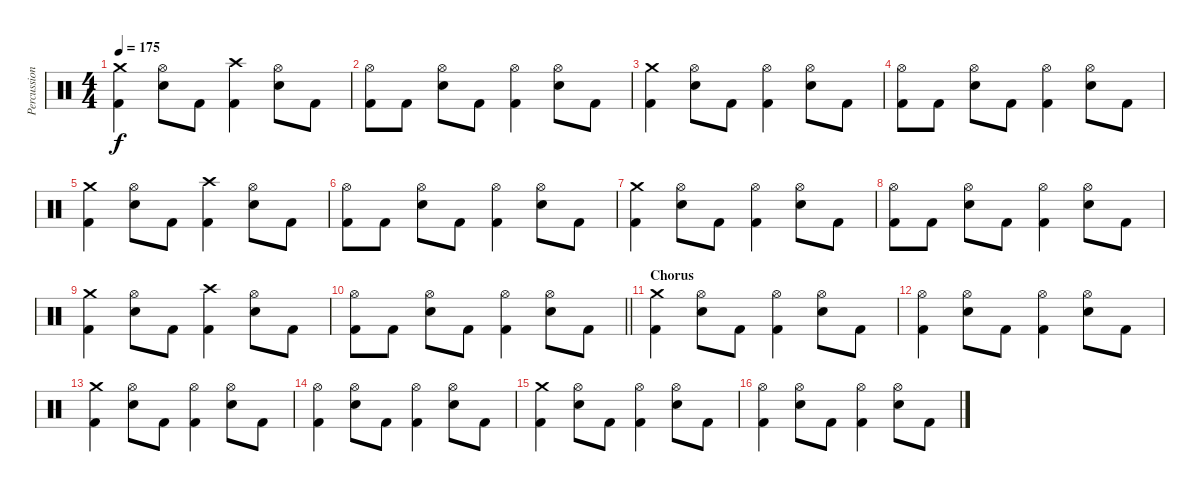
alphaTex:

\track ("Percussion" "Percussion") {instrument percussion}
\staff {score}
\articulation defaults
\ts (4 4)
\tempo 175
\clef neutral
\ks c
("Crash medium (hit)" "Kick (hit) 2").4{dy f} ("Hi-Hat (open)" "Electric Snare (hit)").8 "Kick (hit) 2".8 ("Crash high (hit)" "Kick (hit) 2").4 ("Hi-Hat (open)" "Electric Snare (hit)").8 "Kick (hit) 2".8 |
("Hi-Hat (open)" "Kick (hit) 2").8 "Kick (hit) 2".8 ("Hi-Hat (open)" "Electric Snare (hit)").8 "Kick (hit) 2".8 ("Hi-Hat (open)" "Kick (hit) 2").4 ("Hi-Hat (open)" "Electric Snare (hit)").8 "Kick (hit) 2".8 |
("Crash medium (hit)" "Kick (hit) 2").4 ("Hi-Hat (open)" "Electric Snare (hit)").8 "Kick (hit) 2".8 ("Hi-Hat (open)" "Kick (hit) 2").4 ("Hi-Hat (open)" "Electric Snare (hit)").8 "Kick (hit) 2".8 |
("Hi-Hat (open)" "Kick (hit) 2").8 "Kick (hit) 2".8 ("Hi-Hat (open)" "Electric Snare (hit)").8 "Kick (hit) 2".8 ("Hi-Hat (open)" "Kick (hit) 2").4 ("Hi-Hat (open)" "Electric Snare (hit)").8 "Kick (hit) 2".8 |
("Crash medium (hit)" "Kick (hit) 2").4 ("Hi-Hat (open)" "Electric Snare (hit)").8 "Kick (hit) 2".8 ("Crash high (hit)" "Kick (hit) 2").4 ("Hi-Hat (open)" "Electric Snare (hit)").8 "Kick (hit) 2".8 |
("Hi-Hat (open)" "Kick (hit) 2").8 "Kick (hit) 2".8 ("Hi-Hat (open)" "Electric Snare (hit)").8 "Kick (hit) 2".8 ("Hi-Hat (open)" "Kick (hit) 2").4 ("Hi-Hat (open)" "Electric Snare (hit)").8 "Kick (hit) 2".8 |
("Crash medium (hit)" "Kick (hit) 2").4 ("Hi-Hat (open)" "Electric Snare (hit)").8 "Kick (hit) 2".8 ("Hi-Hat (open)" "Kick (hit) 2").4 ("Hi-Hat (open)" "Electric Snare (hit)").8 "Kick (hit) 2".8 |
("Hi-Hat (open)" "Kick (hit) 2").8 "Kick (hit) 2".8 ("Hi-Hat (open)" "Electric Snare (hit)").8 "Kick (hit) 2".8 ("Hi-Hat (open)" "Kick (hit) 2").4 ("Hi-Hat (open)" "Electric Snare (hit)").8 "Kick (hit) 2".8 |
("Crash medium (hit)" "Kick (hit) 2").4 ("Hi-Hat (open)" "Electric Snare (hit)").8 "Kick (hit) 2".8 ("Crash high (hit)" "Kick (hit) 2").4 ("Hi-Hat (open)" "Electric Snare (hit)").8 "Kick (hit) 2".8 |
\barLineRight lightlight
("Hi-Hat (open)" "Kick (hit) 2").8 "Kick (hit) 2".8 ("Hi-Hat (open)" "Electric Snare (hit)").8 "Kick (hit) 2".8 ("Hi-Hat (open)" "Kick (hit) 2").4 ("Hi-Hat (open)" "Electric Snare (hit)").8 "Kick (hit) 2".8 |
\section ("" "Chorus")
("Crash medium (hit)" "Kick (hit) 2").4 ("Hi-Hat (open)" "Electric Snare (hit)").8 "Kick (hit) 2".8 ("Hi-Hat (open)" "Kick (hit) 2").4 ("Hi-Hat (open)" "Electric Snare (hit)").8 "Kick (hit) 2".8 |
("Hi-Hat (open)" "Kick (hit) 2").4 ("Hi-Hat (open)" "Electric Snare (hit)").8 "Kick (hit) 2".8 ("Hi-Hat (open)" "Kick (hit) 2").4 ("Hi-Hat (open)" "Electric Snare (hit)").8 "Kick (hit) 2".8 |
("Crash medium (hit)" "Kick (hit) 2").4 ("Hi-Hat (open)" "Electric Snare (hit)").8 "Kick (hit) 2".8 ("Hi-Hat (open)" "Kick (hit) 2").4 ("Hi-Hat (open)" "Electric Snare (hit)").8 "Kick (hit) 2".8 |
("Hi-Hat (open)" "Kick (hit) 2").4 ("Hi-Hat (open)" "Electric Snare (hit)").8 "Kick (hit) 2".8 ("Hi-Hat (open)" "Kick (hit) 2").4 ("Hi-Hat (open)" "Electric Snare (hit)").8 "Kick (hit) 2".8 |
("Crash medium (hit)" "Kick (hit) 2").4 ("Hi-Hat (open)" "Electric Snare (hit)").8 "Kick (hit) 2".8 ("Hi-Hat (open)" "Kick (hit) 2").4 ("Hi-Hat (open)" "Electric Snare (hit)").8 "Kick (hit) 2".8 |
("Hi-Hat (open)" "Kick (hit) 2").4 ("Hi-Hat (open)" "Electric Snare (hit)").8 "Kick (hit) 2".8 ("Hi-Hat (open)" "Kick (hit) 2").4 ("Hi-Hat (open)" "Electric Snare (hit)").8 "Kick (hit) 2".8
